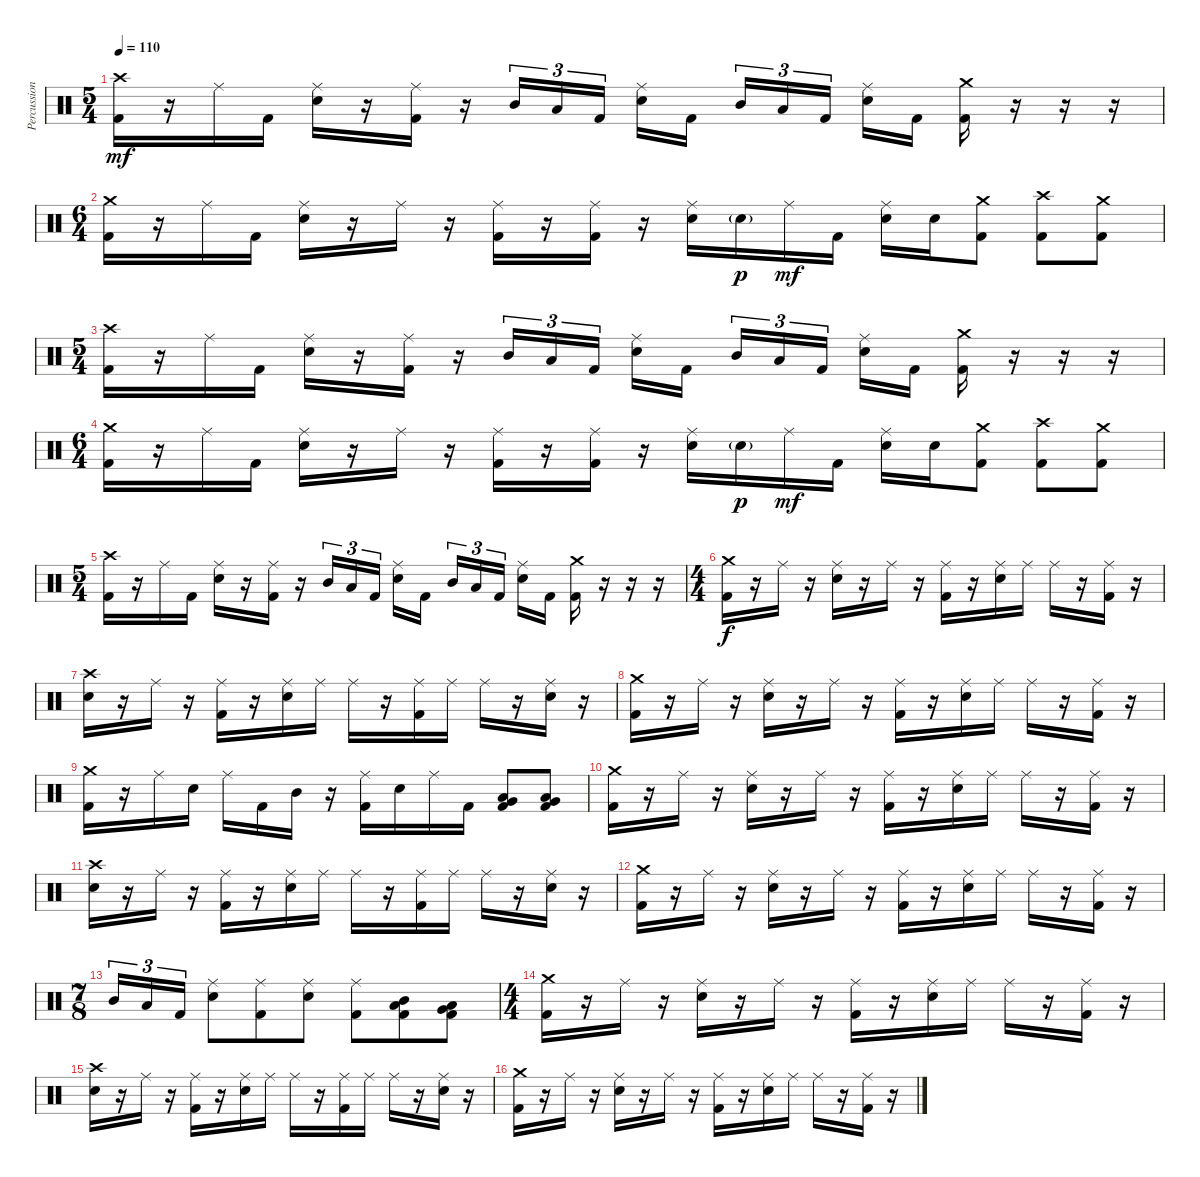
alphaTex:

\track ("Percussion" "Percussion") {instrument percussion}
\staff {score}
\articulation defaults
\ts (5 4)
\tempo 110
\clef neutral
\ks c
("Crash high (hit)" "Kick (hit) 2").16{dy mf} r.16 "Ride (middle)".16 "Kick (hit) 2".16 ("Ride (middle)" "Electric Snare (hit)").16 r.16 ("Ride (middle)" "Kick (hit) 2").16 r.16 "Mid Tom (hit)".16{tu (3 2)} "Low Tom (hit)".16{tu (3 2)} "Kick (hit) 2".16{tu (3 2) beam splitsecondary} ("Ride (middle)" "Electric Snare (hit)").16 "Kick (hit) 2".16 "Mid Tom (hit)".16{tu (3 2)} "Low Tom (hit)".16{tu (3 2)} "Kick (hit) 2".16{tu (3 2) beam splitsecondary} ("Ride (middle)" "Electric Snare (hit)").16 "Kick (hit) 2".16 ("Crash medium (hit)" "Kick (hit) 2").16 r.16 r.16 r.16 |
\ts (6 4)
("Crash medium (hit)" "Kick (hit) 2").16 r.16 "Ride (middle)".16 "Kick (hit) 2".16 ("Ride (middle)" "Electric Snare (hit)").16 r.16 "Ride (middle)".16 r.16 ("Ride (middle)" "Kick (hit) 2").16 r.16 ("Ride (middle)" "Kick (hit) 2").16 r.16 ("Ride (middle)" "Electric Snare (hit)").16 "Electric Snare (hit)"{g}.16{dy p} "Ride (middle)".16{dy mf} "Kick (hit) 2".16 ("Ride (middle)" "Electric Snare (hit)").16 "Electric Snare (hit)".16 ("Crash medium (hit)" "Kick (hit) 2").8 ("Crash high (hit)" "Kick (hit) 2").8 ("Crash medium (hit)" "Kick (hit) 2").8 |
\ts (5 4)
("Crash high (hit)" "Kick (hit) 2").16 r.16 "Ride (middle)".16 "Kick (hit) 2".16 ("Ride (middle)" "Electric Snare (hit)").16 r.16 ("Ride (middle)" "Kick (hit) 2").16 r.16 "Mid Tom (hit)".16{tu (3 2)} "Low Tom (hit)".16{tu (3 2)} "Kick (hit) 2".16{tu (3 2) beam splitsecondary} ("Ride (middle)" "Electric Snare (hit)").16 "Kick (hit) 2".16 "Mid Tom (hit)".16{tu (3 2)} "Low Tom (hit)".16{tu (3 2)} "Kick (hit) 2".16{tu (3 2) beam splitsecondary} ("Ride (middle)" "Electric Snare (hit)").16 "Kick (hit) 2".16 ("Crash medium (hit)" "Kick (hit) 2").16 r.16 r.16 r.16 |
\ts (6 4)
("Crash medium (hit)" "Kick (hit) 2").16 r.16 "Ride (middle)".16 "Kick (hit) 2".16 ("Ride (middle)" "Electric Snare (hit)").16 r.16 "Ride (middle)".16 r.16 ("Ride (middle)" "Kick (hit) 2").16 r.16 ("Ride (middle)" "Kick (hit) 2").16 r.16 ("Ride (middle)" "Electric Snare (hit)").16 "Electric Snare (hit)"{g}.16{dy p} "Ride (middle)".16{dy mf} "Kick (hit) 2".16 ("Ride (middle)" "Electric Snare (hit)").16 "Electric Snare (hit)".16 ("Crash medium (hit)" "Kick (hit) 2").8 ("Crash high (hit)" "Kick (hit) 2").8 ("Crash medium (hit)" "Kick (hit) 2").8 |
\ts (5 4)
("Crash high (hit)" "Kick (hit) 2").16 r.16 "Ride (middle)".16 "Kick (hit) 2".16 ("Ride (middle)" "Electric Snare (hit)").16 r.16 ("Ride (middle)" "Kick (hit) 2").16 r.16 "Mid Tom (hit)".16{tu (3 2)} "Low Tom (hit)".16{tu (3 2)} "Kick (hit) 2".16{tu (3 2) beam splitsecondary} ("Ride (middle)" "Electric Snare (hit)").16 "Kick (hit) 2".16 "Mid Tom (hit)".16{tu (3 2)} "Low Tom (hit)".16{tu (3 2)} "Kick (hit) 2".16{tu (3 2) beam splitsecondary} ("Ride (middle)" "Electric Snare (hit)").16 "Kick (hit) 2".16 ("Crash medium (hit)" "Kick (hit) 2").16 r.16 r.16 r.16 |
\ts (4 4)
("Crash medium (hit)" "Kick (hit) 2").16{dy f} r.16 "Ride (middle)".16 r.16 ("Ride (middle)" "Electric Snare (hit)").16 r.16 "Ride (middle)".16 r.16 ("Ride (middle)" "Kick (hit) 2").16 r.16 ("Ride (middle)" "Electric Snare (hit)").16 "Ride (middle)".16 "Ride (middle)".16 r.16 ("Ride (middle)" "Kick (hit) 2").16 r.16 |
("Crash high (hit)" "Electric Snare (hit)").16 r.16 "Ride (middle)".16 r.16 ("Ride (middle)" "Kick (hit) 2").16 r.16 ("Ride (middle)" "Electric Snare (hit)").16 "Ride (middle)".16 "Ride (middle)".16 r.16 ("Ride (middle)" "Kick (hit) 2").16 "Ride (middle)".16 "Ride (middle)".16 r.16 ("Ride (middle)" "Electric Snare (hit)").16 r.16 |
("Crash medium (hit)" "Kick (hit) 2").16 r.16 "Ride (middle)".16 r.16 ("Ride (middle)" "Electric Snare (hit)").16 r.16 "Ride (middle)".16 r.16 ("Ride (middle)" "Kick (hit) 2").16 r.16 ("Ride (middle)" "Electric Snare (hit)").16 "Ride (middle)".16 "Ride (middle)".16 r.16 ("Ride (middle)" "Kick (hit) 2").16 r.16 |
("Crash medium (hit)" "Kick (hit) 2").16 r.16 "Ride (middle)".16 "Electric Snare (hit)".16 "Ride (middle)".16 "Kick (hit) 2".16 "Mid Tom (hit)".16 r.16 ("Ride (middle)" "Kick (hit) 2").16 "Electric Snare (hit)".16 "Ride (middle)".16 "Kick (hit) 2".16 ("Kick (hit) 2" "Very Low Tom (hit)" "Low Tom (hit)").8 ("Kick (hit) 2" "Very Low Tom (hit)" "Low Floor Tom (hit)").8 |
("Crash medium (hit)" "Kick (hit) 2").16 r.16 "Ride (middle)".16 r.16 ("Ride (middle)" "Electric Snare (hit)").16 r.16 "Ride (middle)".16 r.16 ("Ride (middle)" "Kick (hit) 2").16 r.16 ("Ride (middle)" "Electric Snare (hit)").16 "Ride (middle)".16 "Ride (middle)".16 r.16 ("Ride (middle)" "Kick (hit) 2").16 r.16 |
("Crash high (hit)" "Electric Snare (hit)").16 r.16 "Ride (middle)".16 r.16 ("Ride (middle)" "Kick (hit) 2").16 r.16 ("Ride (middle)" "Electric Snare (hit)").16 "Ride (middle)".16 "Ride (middle)".16 r.16 ("Ride (middle)" "Kick (hit) 2").16 "Ride (middle)".16 "Ride (middle)".16 r.16 ("Ride (middle)" "Electric Snare (hit)").16 r.16 |
("Crash medium (hit)" "Kick (hit) 2").16 r.16 "Ride (middle)".16 r.16 ("Ride (middle)" "Electric Snare (hit)").16 r.16 "Ride (middle)".16 r.16 ("Ride (middle)" "Kick (hit) 2").16 r.16 ("Ride (middle)" "Electric Snare (hit)").16 "Ride (middle)".16 "Ride (middle)".16 r.16 ("Ride (middle)" "Kick (hit) 2").16 r.16 |
\ts (7 8)
"Mid Tom (hit)".16{tu (3 2)} "Low Tom (hit)".16{tu (3 2)} "Kick (hit) 2".16{tu (3 2)} ("Ride (middle)" "Electric Snare (hit)").8 ("Ride (middle)" "Kick (hit) 2").8 ("Ride (middle)" "Electric Snare (hit)").8 ("Ride (middle)" "Kick (hit) 2").8 ("Mid Tom (hit)" "Low Tom (hit)" "Kick (hit) 2").8 ("Low Tom (hit)" "Very Low Tom (hit)" "Kick (hit) 2").8 |
\ts (4 4)
("Crash medium (hit)" "Kick (hit) 2").16 r.16 "Ride (middle)".16 r.16 ("Ride (middle)" "Electric Snare (hit)").16 r.16 "Ride (middle)".16 r.16 ("Ride (middle)" "Kick (hit) 2").16 r.16 ("Ride (middle)" "Electric Snare (hit)").16 "Ride (middle)".16 "Ride (middle)".16 r.16 ("Ride (middle)" "Kick (hit) 2").16 r.16 |
("Crash high (hit)" "Electric Snare (hit)").16 r.16 "Ride (middle)".16 r.16 ("Ride (middle)" "Kick (hit) 2").16 r.16 ("Ride (middle)" "Electric Snare (hit)").16 "Ride (middle)".16 "Ride (middle)".16 r.16 ("Ride (middle)" "Kick (hit) 2").16 "Ride (middle)".16 "Ride (middle)".16 r.16 ("Ride (middle)" "Electric Snare (hit)").16 r.16 |
("Crash medium (hit)" "Kick (hit) 2").16 r.16 "Ride (middle)".16 r.16 ("Ride (middle)" "Electric Snare (hit)").16 r.16 "Ride (middle)".16 r.16 ("Ride (middle)" "Kick (hit) 2").16 r.16 ("Ride (middle)" "Electric Snare (hit)").16 "Ride (middle)".16 "Ride (middle)".16 r.16 ("Ride (middle)" "Kick (hit) 2").16 r.16
